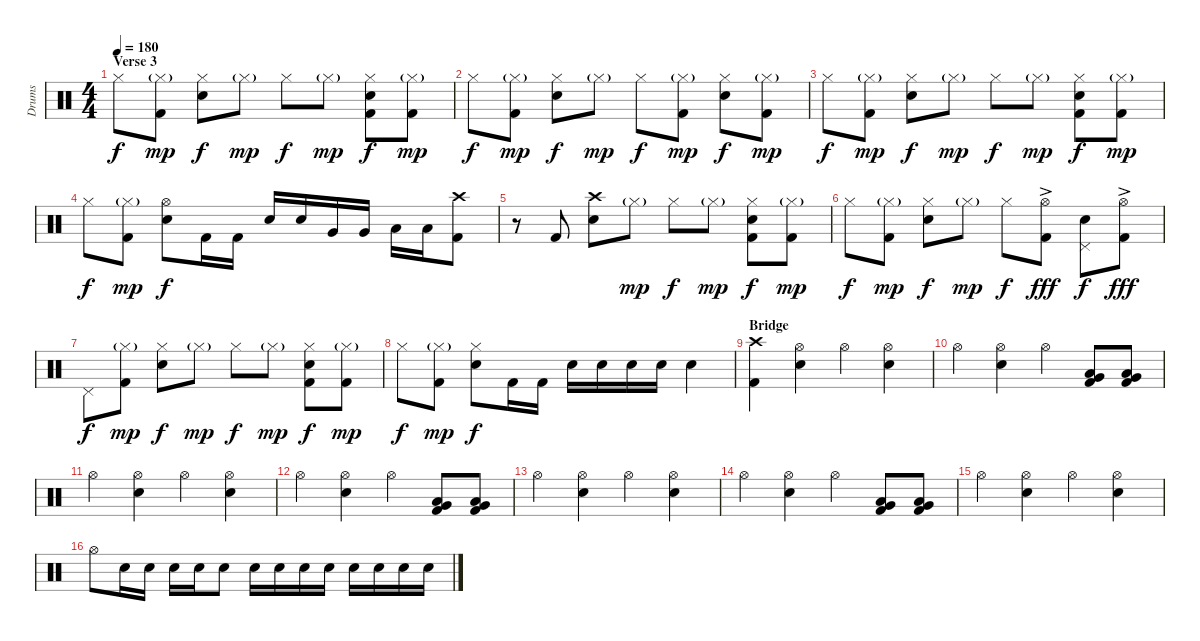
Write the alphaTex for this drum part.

\track ("Drums" "Drums") {instrument percussion}
\staff {score}
\articulation defaults
\ts (4 4)
\section ("" "Verse 3")
\tempo 180
\clef neutral
\ks c "Hi-Hat (closed)".8{dy f}
("Hi-Hat (closed)"{g} "Kick (hit) 2").8{dy mp} ("Hi-Hat (closed)" "Snare (hit) 2").8{dy f} "Hi-Hat (closed)"{g}.8{dy mp} "Hi-Hat (closed)".8{dy f} "Hi-Hat (closed)"{g}.8{dy mp} ("Hi-Hat (closed)" "Snare (hit) 2" "Kick (hit) 2").8{dy f} ("Hi-Hat (closed)"{g} "Kick (hit) 2").8{dy mp} |
"Hi-Hat (closed)".8{dy f} ("Hi-Hat (closed)"{g} "Kick (hit) 2").8{dy mp} ("Hi-Hat (closed)" "Snare (hit) 2").8{dy f} "Hi-Hat (closed)"{g}.8{dy mp} "Hi-Hat (closed)".8{dy f} ("Hi-Hat (closed)"{g} "Kick (hit) 2").8{dy mp} ("Hi-Hat (closed)" "Snare (hit) 2").8{dy f} ("Hi-Hat (closed)"{g} "Kick (hit) 2").8{dy mp} |
"Hi-Hat (closed)".8{dy f} ("Hi-Hat (closed)"{g} "Kick (hit) 2").8{dy mp} ("Hi-Hat (closed)" "Snare (hit) 2").8{dy f} "Hi-Hat (closed)"{g}.8{dy mp} "Hi-Hat (closed)".8{dy f} "Hi-Hat (closed)"{g}.8{dy mp} ("Hi-Hat (closed)" "Snare (hit) 2" "Kick (hit) 2").8{dy f} ("Hi-Hat (closed)"{g} "Kick (hit) 2").8{dy mp} |
"Hi-Hat (closed)".8{dy f} ("Hi-Hat (closed)"{g} "Kick (hit) 2").8{dy mp} ("Hi-Hat (open)" "Snare (hit) 2").8{dy f} "Kick (hit) 2".16 "Kick (hit) 2".16 "Snare (hit) 2".16 "Snare (hit) 2".16 "Very Low Tom (hit)".16 "Very Low Tom (hit)".16 "Low Floor Tom (hit)".16 "Low Floor Tom (hit)".16 ("Crash high (hit)" "Kick (hit) 2").8 |
r.8 "Kick (hit) 2".8 ("Crash high (hit)" "Snare (hit) 2").8 "Hi-Hat (closed)"{g}.8{dy mp} "Hi-Hat (closed)".8{dy f} "Hi-Hat (closed)"{g}.8{dy mp} ("Hi-Hat (closed)" "Snare (hit) 2" "Kick (hit) 2").8{dy f} ("Hi-Hat (closed)"{g} "Kick (hit) 2").8{dy mp} |
"Hi-Hat (closed)".8{dy f} ("Hi-Hat (closed)"{g} "Kick (hit) 2").8{dy mp} ("Hi-Hat (closed)" "Snare (hit) 2").8{dy f} "Hi-Hat (closed)"{g}.8{dy mp} "Hi-Hat (closed)".8{dy f} ("Hi-Hat (open)"{ac} "Kick (hit) 2").8{dy fff} ("Pedal Hi-Hat (hit)" "Snare (hit) 2").8{dy f} ("Hi-Hat (open)"{ac} "Kick (hit) 2").8{dy fff} |
"Pedal Hi-Hat (hit)".8{dy f} ("Hi-Hat (closed)"{g} "Kick (hit) 2").8{dy mp} ("Hi-Hat (closed)" "Snare (hit) 2").8{dy f} "Hi-Hat (closed)"{g}.8{dy mp} "Hi-Hat (closed)".8{dy f} "Hi-Hat (closed)"{g}.8{dy mp} ("Hi-Hat (closed)" "Snare (hit) 2" "Kick (hit) 2").8{dy f} ("Hi-Hat (closed)"{g} "Kick (hit) 2").8{dy mp} |
"Hi-Hat (closed)".8{dy f} ("Hi-Hat (closed)"{g} "Kick (hit) 2").8{dy mp} ("Hi-Hat (closed)" "Snare (hit) 2").8{dy f} "Kick (hit) 2".16 "Kick (hit) 2".16 "Snare (hit) 2".16 "Snare (hit) 2".16 "Snare (hit) 2".16 "Snare (hit) 2".16 "Snare (hit) 2".4 |
\section ("" "Bridge")
("Crash high (hit)" "Kick (hit) 2").4 ("Hi-Hat (open)" "Snare (hit) 2").4 "Hi-Hat (open)".4 ("Hi-Hat (open)" "Snare (hit) 2").4 |
"Hi-Hat (open)".4 ("Hi-Hat (open)" "Snare (hit) 2").4 "Hi-Hat (open)".4 ("Low Floor Tom (hit)" "Very Low Tom (hit)" "Kick (hit) 2").8 ("Low Floor Tom (hit)" "Very Low Tom (hit)" "Kick (hit) 2").8 |
"Hi-Hat (open)".4 ("Hi-Hat (open)" "Snare (hit) 2").4 "Hi-Hat (open)".4 ("Hi-Hat (open)" "Snare (hit) 2").4 |
"Hi-Hat (open)".4 ("Hi-Hat (open)" "Snare (hit) 2").4 "Hi-Hat (open)".4 ("Low Floor Tom (hit)" "Very Low Tom (hit)" "Kick (hit) 2").8 ("Low Floor Tom (hit)" "Very Low Tom (hit)" "Kick (hit) 2").8 |
"Hi-Hat (open)".4 ("Hi-Hat (open)" "Snare (hit) 2").4 "Hi-Hat (open)".4 ("Hi-Hat (open)" "Snare (hit) 2").4 |
"Hi-Hat (open)".4 ("Hi-Hat (open)" "Snare (hit) 2").4 "Hi-Hat (open)".4 ("Low Floor Tom (hit)" "Very Low Tom (hit)" "Kick (hit) 2").8 ("Low Floor Tom (hit)" "Very Low Tom (hit)" "Kick (hit) 2").8 |
"Hi-Hat (open)".4 ("Hi-Hat (open)" "Snare (hit) 2").4 "Hi-Hat (open)".4 ("Hi-Hat (open)" "Snare (hit) 2").4 |
"Hi-Hat (open)".8 "Snare (hit) 2".16 "Snare (hit) 2".16 "Snare (hit) 2".16 "Snare (hit) 2".16 "Snare (hit) 2".8 "Snare (hit) 2".16 "Snare (hit) 2".16 "Snare (hit) 2".16 "Snare (hit) 2".16 "Snare (hit) 2".16 "Snare (hit) 2".16 "Snare (hit) 2".16 "Snare (hit) 2".16
